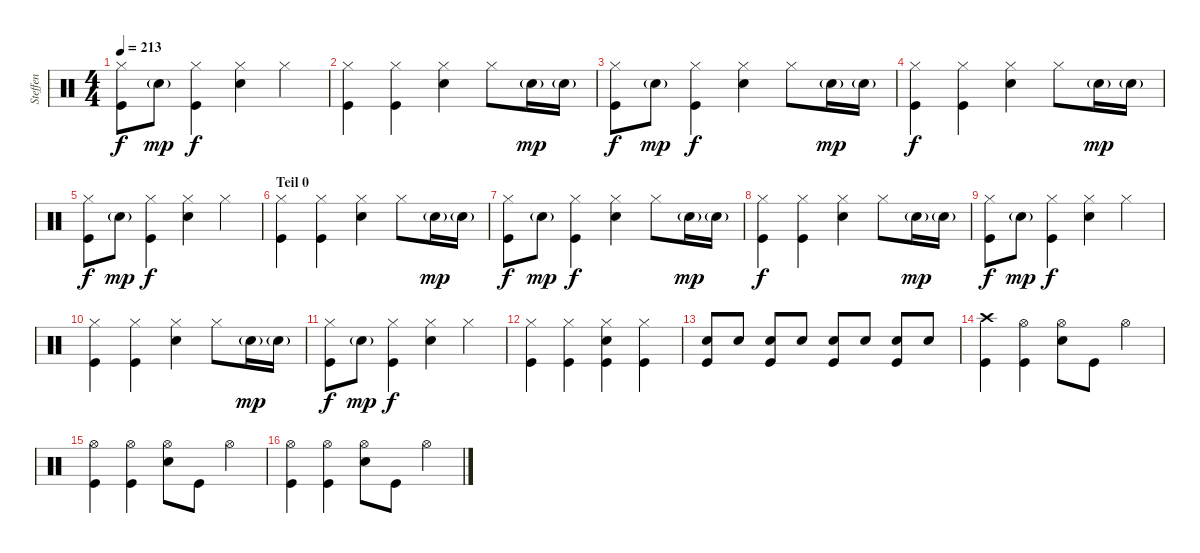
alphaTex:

\track ("Steffen" "Steffen") {instrument percussion}
\staff {score}
\articulation defaults
\ts (4 4)
\tempo 213
\clef neutral
\ks c
("Hi-Hat (closed)" "Kick (hit)").8{dy f} "Snare (hit) 2"{g}.8{dy mp} ("Hi-Hat (closed)" "Kick (hit)").4{dy f} ("Hi-Hat (closed)" "Snare (hit) 2").4 "Hi-Hat (closed)".4 |
("Hi-Hat (closed)" "Kick (hit)").4 ("Hi-Hat (closed)" "Kick (hit)").4 ("Hi-Hat (closed)" "Snare (hit) 2").4 "Hi-Hat (closed)".8 "Snare (hit) 2"{g}.16{dy mp} "Snare (hit) 2"{g}.16 |
("Hi-Hat (closed)" "Kick (hit)").8{dy f} "Snare (hit) 2"{g}.8{dy mp} ("Hi-Hat (closed)" "Kick (hit)").4{dy f} ("Hi-Hat (closed)" "Snare (hit) 2").4 "Hi-Hat (closed)".8 "Snare (hit) 2"{g}.16{dy mp} "Snare (hit) 2"{g}.16 |
("Hi-Hat (closed)" "Kick (hit)").4{dy f} ("Hi-Hat (closed)" "Kick (hit)").4 ("Hi-Hat (closed)" "Snare (hit) 2").4 "Hi-Hat (closed)".8 "Snare (hit) 2"{g}.16{dy mp} "Snare (hit) 2"{g}.16 |
("Hi-Hat (closed)" "Kick (hit)").8{dy f} "Snare (hit) 2"{g}.8{dy mp} ("Hi-Hat (closed)" "Kick (hit)").4{dy f} ("Hi-Hat (closed)" "Snare (hit) 2").4 "Hi-Hat (closed)".4 |
\section ("" "Teil 0")
("Hi-Hat (closed)" "Kick (hit)").4 ("Hi-Hat (closed)" "Kick (hit)").4 ("Hi-Hat (closed)" "Snare (hit) 2").4 "Hi-Hat (closed)".8 "Snare (hit) 2"{g}.16{dy mp} "Snare (hit) 2"{g}.16 |
("Hi-Hat (closed)" "Kick (hit)").8{dy f} "Snare (hit) 2"{g}.8{dy mp} ("Hi-Hat (closed)" "Kick (hit)").4{dy f} ("Hi-Hat (closed)" "Snare (hit) 2").4 "Hi-Hat (closed)".8 "Snare (hit) 2"{g}.16{dy mp} "Snare (hit) 2"{g}.16 |
("Hi-Hat (closed)" "Kick (hit)").4{dy f} ("Hi-Hat (closed)" "Kick (hit)").4 ("Hi-Hat (closed)" "Snare (hit) 2").4 "Hi-Hat (closed)".8 "Snare (hit) 2"{g}.16{dy mp} "Snare (hit) 2"{g}.16 |
("Hi-Hat (closed)" "Kick (hit)").8{dy f} "Snare (hit) 2"{g}.8{dy mp} ("Hi-Hat (closed)" "Kick (hit)").4{dy f} ("Hi-Hat (closed)" "Snare (hit) 2").4 "Hi-Hat (closed)".4 |
("Hi-Hat (closed)" "Kick (hit)").4 ("Hi-Hat (closed)" "Kick (hit)").4 ("Hi-Hat (closed)" "Snare (hit) 2").4 "Hi-Hat (closed)".8 "Snare (hit) 2"{g}.16{dy mp} "Snare (hit) 2"{g}.16 |
("Hi-Hat (closed)" "Kick (hit)").8{dy f} "Snare (hit) 2"{g}.8{dy mp} ("Hi-Hat (closed)" "Kick (hit)").4{dy f} ("Hi-Hat (closed)" "Snare (hit) 2").4 "Hi-Hat (closed)".4 |
("Hi-Hat (closed)" "Kick (hit)").4 ("Hi-Hat (closed)" "Kick (hit)").4 ("Hi-Hat (closed)" "Snare (hit) 2" "Kick (hit)").4 ("Hi-Hat (closed)" "Kick (hit)").4 |
("Snare (hit) 2" "Kick (hit)").8 "Snare (hit) 2".8 ("Snare (hit) 2" "Kick (hit)").8 "Snare (hit) 2".8 ("Snare (hit) 2" "Kick (hit)").8 "Snare (hit) 2".8 ("Snare (hit) 2" "Kick (hit)").8 "Snare (hit) 2".8 |
("Crash high (hit)" "Kick (hit)").4 ("Hi-Hat (open)" "Kick (hit)").4 ("Hi-Hat (open)" "Snare (hit) 2").8 "Kick (hit)".8 "Hi-Hat (open)".4 |
("Hi-Hat (open)" "Kick (hit)").4 ("Hi-Hat (open)" "Kick (hit)").4 ("Hi-Hat (open)" "Snare (hit) 2").8 "Kick (hit)".8 "Hi-Hat (open)".4 |
("Hi-Hat (open)" "Kick (hit)").4 ("Hi-Hat (open)" "Kick (hit)").4 ("Hi-Hat (open)" "Snare (hit) 2").8 "Kick (hit)".8 "Hi-Hat (open)".4
